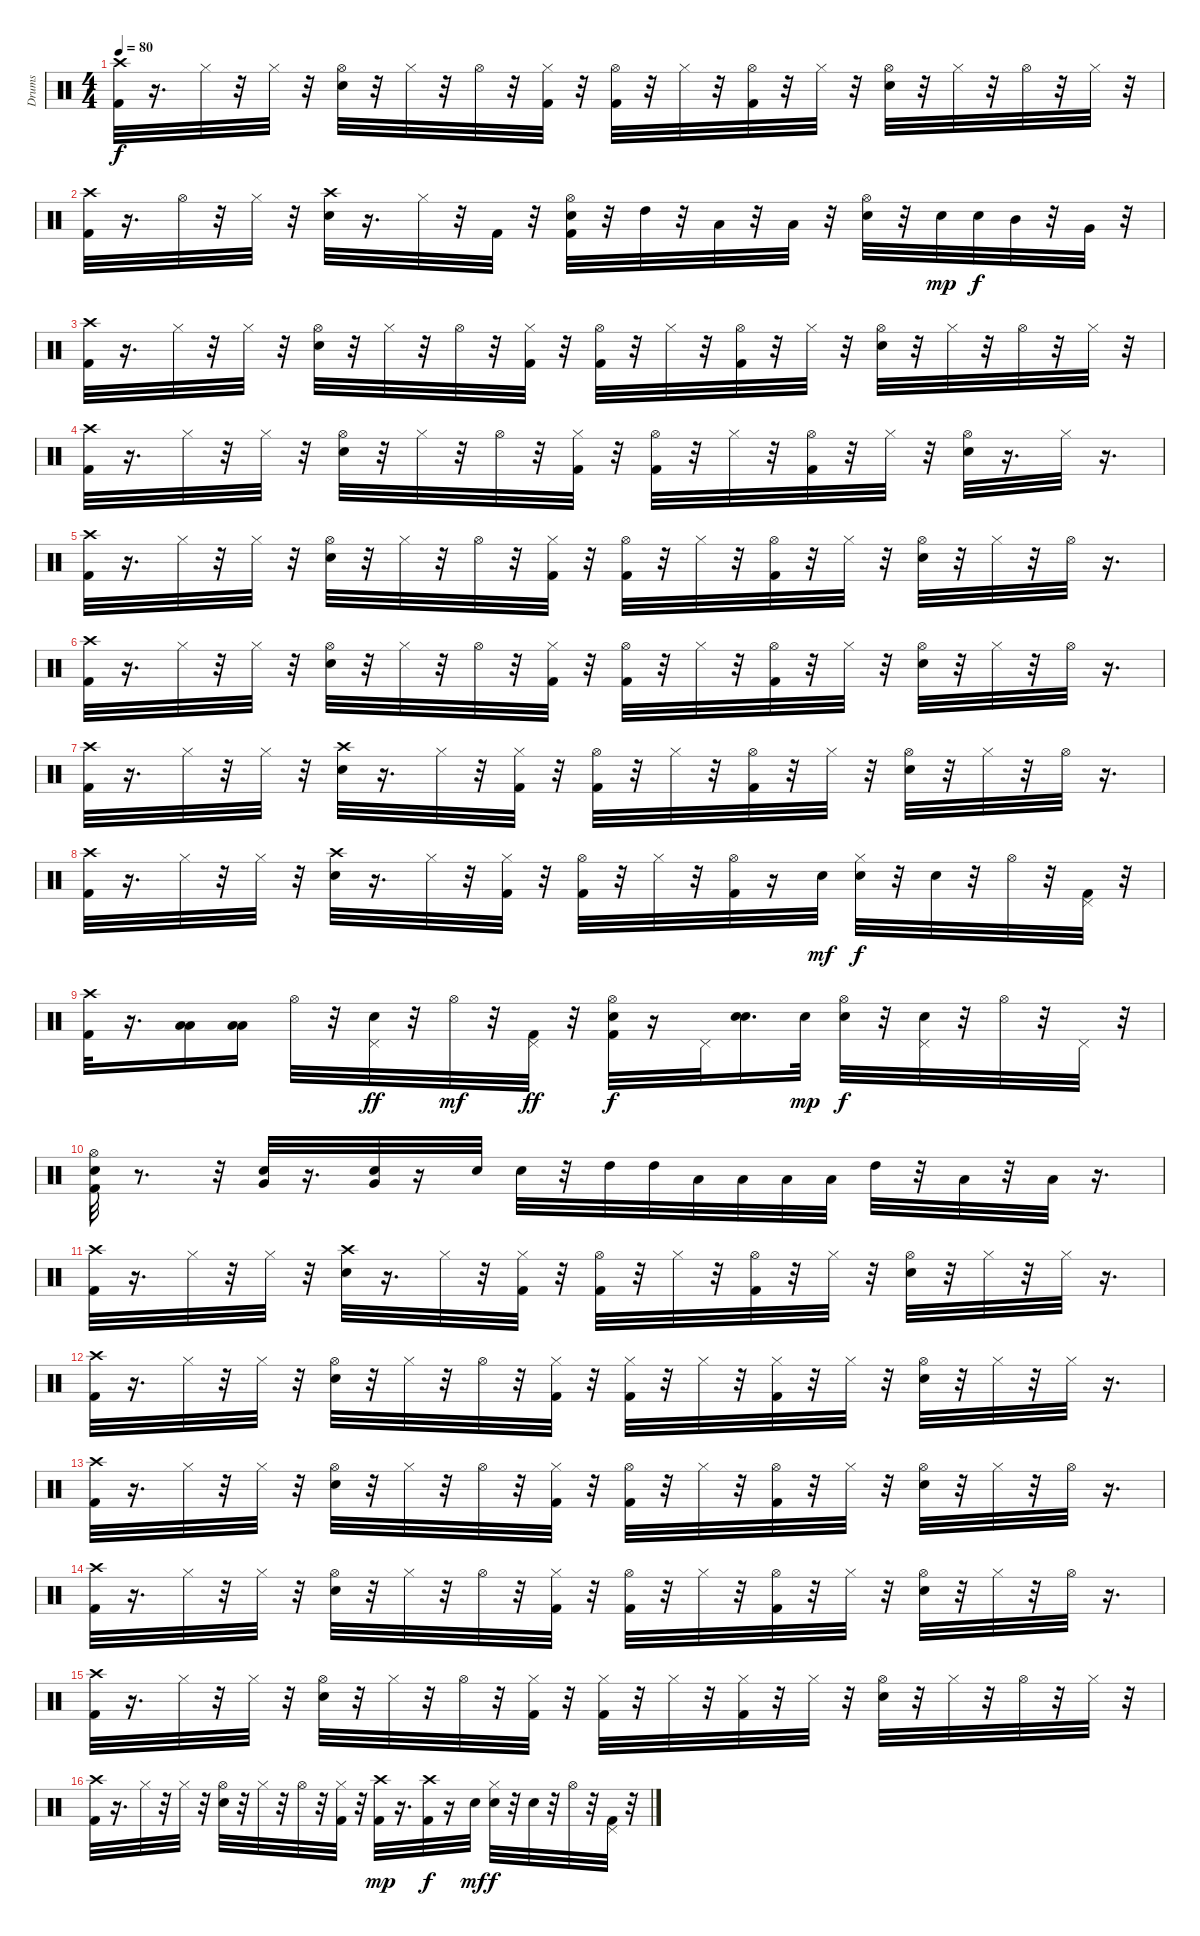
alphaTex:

\track ("Drums" "Drums") {instrument percussion}
\staff {score}
\articulation defaults
\ts (4 4)
\tempo 80
\clef neutral
\ks c
("Kick (hit) 2" "Crash high (hit)").32{dy f} r.16{d} "Hi-Hat (closed)".32 r.32 "Hi-Hat (closed)".32 r.32 ("Snare (hit) 2" "Hi-Hat (open)").32 r.32 "Hi-Hat (closed)".32 r.32 "Hi-Hat (open)".32 r.32 ("Kick (hit) 2" "Hi-Hat (closed)").32 r.32 ("Kick (hit) 2" "Hi-Hat (open)").32 r.32 "Hi-Hat (closed)".32 r.32 ("Hi-Hat (open)" "Kick (hit) 2").32 r.32 "Hi-Hat (closed)".32 r.32 ("Snare (hit) 2" "Hi-Hat (open)").32 r.32 "Hi-Hat (closed)".32 r.32 "Hi-Hat (open)".32 r.32 "Hi-Hat (closed)".32 r.32 |
("Kick (hit) 2" "Crash high (hit)").32 r.16{d} "Hi-Hat (open)".32 r.32 "Hi-Hat (closed)".32 r.32 ("Crash high (hit)" "Snare (hit) 2").32 r.16{d} "Hi-Hat (closed)".32 r.32 "Kick (hit) 2".32 r.32 ("Snare (hit) 2" "Hi-Hat (open)" "Kick (hit) 2").32 r.32 "High Tom (hit)".32 r.32 "Low Tom (hit)".32 r.32 "Low Floor Tom (hit)".32 r.32 ("Snare (hit) 2" "Hi-Hat (open)").32 r.32 "Snare (hit) 2".32{dy mp} "Snare (hit) 2".32{dy f} "Mid Tom (hit)".32 r.32 "Very Low Tom (hit)".32 r.32 |
("Kick (hit) 2" "Crash high (hit)").32 r.16{d} "Hi-Hat (closed)".32 r.32 "Hi-Hat (closed)".32 r.32 ("Snare (hit) 2" "Hi-Hat (open)").32 r.32 "Hi-Hat (closed)".32 r.32 "Hi-Hat (open)".32 r.32 ("Kick (hit) 2" "Hi-Hat (closed)").32 r.32 ("Kick (hit) 2" "Hi-Hat (open)").32 r.32 "Hi-Hat (closed)".32 r.32 ("Hi-Hat (open)" "Kick (hit) 2").32 r.32 "Hi-Hat (closed)".32 r.32 ("Snare (hit) 2" "Hi-Hat (open)").32 r.32 "Hi-Hat (closed)".32 r.32 "Hi-Hat (open)".32 r.32 "Hi-Hat (closed)".32 r.32 |
("Kick (hit) 2" "Crash high (hit)").32 r.16{d} "Hi-Hat (closed)".32 r.32 "Hi-Hat (closed)".32 r.32 ("Snare (hit) 2" "Hi-Hat (open)").32 r.32 "Hi-Hat (closed)".32 r.32 "Hi-Hat (open)".32 r.32 ("Kick (hit) 2" "Hi-Hat (closed)").32 r.32 ("Kick (hit) 2" "Hi-Hat (open)").32 r.32 "Hi-Hat (closed)".32 r.32 ("Hi-Hat (open)" "Kick (hit) 2").32 r.32 "Hi-Hat (closed)".32 r.32 ("Snare (hit) 2" "Hi-Hat (open)").32 r.16{d} "Hi-Hat (closed)".32 r.16{d} |
("Kick (hit) 2" "Crash high (hit)").32 r.16{d} "Hi-Hat (closed)".32 r.32 "Hi-Hat (closed)".32 r.32 ("Snare (hit) 2" "Hi-Hat (open)").32 r.32 "Hi-Hat (closed)".32 r.32 "Hi-Hat (open)".32 r.32 ("Kick (hit) 2" "Hi-Hat (closed)").32 r.32 ("Kick (hit) 2" "Hi-Hat (open)").32 r.32 "Hi-Hat (closed)".32 r.32 ("Hi-Hat (open)" "Kick (hit) 2").32 r.32 "Hi-Hat (closed)".32 r.32 ("Snare (hit) 2" "Hi-Hat (open)").32 r.32 "Hi-Hat (closed)".32 r.32 "Hi-Hat (open)".32 r.16{d} |
("Kick (hit) 2" "Crash high (hit)").32 r.16{d} "Hi-Hat (closed)".32 r.32 "Hi-Hat (closed)".32 r.32 ("Snare (hit) 2" "Hi-Hat (open)").32 r.32 "Hi-Hat (closed)".32 r.32 "Hi-Hat (open)".32 r.32 ("Kick (hit) 2" "Hi-Hat (closed)").32 r.32 ("Kick (hit) 2" "Hi-Hat (open)").32 r.32 "Hi-Hat (closed)".32 r.32 ("Hi-Hat (open)" "Kick (hit) 2").32 r.32 "Hi-Hat (closed)".32 r.32 ("Snare (hit) 2" "Hi-Hat (open)").32 r.32 "Hi-Hat (closed)".32 r.32 "Hi-Hat (open)".32 r.16{d} |
("Kick (hit) 2" "Crash high (hit)").32 r.16{d} "Hi-Hat (closed)".32 r.32 "Hi-Hat (closed)".32 r.32 ("Snare (hit) 2" "Crash high (hit)").32 r.16{d} "Hi-Hat (closed)".32 r.32 ("Kick (hit) 2" "Hi-Hat (closed)").32 r.32 ("Kick (hit) 2" "Hi-Hat (open)").32 r.32 "Hi-Hat (closed)".32 r.32 ("Hi-Hat (open)" "Kick (hit) 2").32 r.32 "Hi-Hat (closed)".32 r.32 ("Snare (hit) 2" "Hi-Hat (open)").32 r.32 "Hi-Hat (closed)".32 r.32 "Hi-Hat (open)".32 r.16{d} |
("Kick (hit) 2" "Crash high (hit)").32 r.16{d} "Hi-Hat (closed)".32 r.32 "Hi-Hat (closed)".32 r.32 ("Snare (hit) 2" "Crash high (hit)").32 r.16{d} "Hi-Hat (closed)".32 r.32 ("Kick (hit) 2" "Hi-Hat (closed)").32 r.32 ("Kick (hit) 2" "Hi-Hat (open)").32 r.32 "Hi-Hat (closed)".32 r.32 ("Hi-Hat (open)" "Kick (hit) 2").32 r.16 "Snare (hit) 2".32{dy mf} ("Snare (hit) 2" "Hi-Hat (closed)").32{dy f} r.32 "Snare (hit) 2".32 r.32 "Hi-Hat (open)".32 r.32 ("Pedal Hi-Hat (hit)" "Kick (hit) 2").32 r.32 |
("Crash high (hit)" "Kick (hit) 2").32 r.16{d} ("Low Tom (hit)" "Low Tom (hit)").16 ("Low Floor Tom (hit)" "Low Floor Tom (hit)").16 "Hi-Hat (open)".32 r.32 ("Snare (hit) 2" "Pedal Hi-Hat (hit)").32{dy ff} r.32 "Hi-Hat (open)".32{dy mf} r.32 ("Pedal Hi-Hat (hit)" "Kick (hit) 2").32{dy ff} r.32 ("Kick (hit) 2" "Snare (hit) 2" "Hi-Hat (open)").32{dy f} r.16 "Pedal Hi-Hat (hit)".32 ("Snare (hit) 2" "Snare (hit) 2").16{d} "Snare (hit) 2".32{dy mp} ("Hi-Hat (open)" "Snare (hit) 2").32{dy f} r.32 ("Pedal Hi-Hat (hit)" "Snare (hit) 2").32 r.32 "Hi-Hat (open)".32 r.32 "Pedal Hi-Hat (hit)".32 r.32 |
("Kick (hit) 2" "Hi-Hat (open)" "Snare (hit) 2").32 r.8{d} r.32 ("Very Low Tom (hit)" "Snare (hit) 2").32 r.16{d} ("Snare (hit) 2" "Very Low Tom (hit)").32 r.16 "Snare (hit) 2".32 "Snare (hit) 2".32 r.32 "High Tom (hit)".32 "High Tom (hit)".32 "Low Tom (hit)".32 "Low Tom (hit)".32 "Low Floor Tom (hit)".32 "Low Floor Tom (hit)".32 "High Tom (hit)".32 r.32 "Low Tom (hit)".32 r.32 "Low Floor Tom (hit)".32 r.16{d} |
("Kick (hit) 2" "Crash high (hit)").32 r.16{d} "Hi-Hat (closed)".32 r.32 "Hi-Hat (closed)".32 r.32 ("Snare (hit) 2" "Crash high (hit)").32 r.16{d} "Hi-Hat (closed)".32 r.32 ("Kick (hit) 2" "Hi-Hat (closed)").32 r.32 ("Kick (hit) 2" "Hi-Hat (open)").32 r.32 "Hi-Hat (closed)".32 r.32 ("Hi-Hat (open)" "Kick (hit) 2").32 r.32 "Hi-Hat (closed)".32 r.32 ("Snare (hit) 2" "Hi-Hat (open)").32 r.32 "Hi-Hat (closed)".32 r.32 "Hi-Hat (closed)".32 r.16{d} |
("Kick (hit) 2" "Crash high (hit)").32 r.16{d} "Hi-Hat (closed)".32 r.32 "Hi-Hat (closed)".32 r.32 ("Snare (hit) 2" "Hi-Hat (open)").32 r.32 "Hi-Hat (closed)".32 r.32 "Hi-Hat (open)".32 r.32 ("Kick (hit) 2" "Hi-Hat (closed)").32 r.32 ("Kick (hit) 2" "Hi-Hat (closed)").32 r.32 "Hi-Hat (closed)".32 r.32 ("Hi-Hat (closed)" "Kick (hit) 2").32 r.32 "Hi-Hat (closed)".32 r.32 ("Snare (hit) 2" "Hi-Hat (open)").32 r.32 "Hi-Hat (closed)".32 r.32 "Hi-Hat (closed)".32 r.16{d} |
("Kick (hit) 2" "Crash high (hit)").32 r.16{d} "Hi-Hat (closed)".32 r.32 "Hi-Hat (closed)".32 r.32 ("Snare (hit) 2" "Hi-Hat (open)").32 r.32 "Hi-Hat (closed)".32 r.32 "Hi-Hat (open)".32 r.32 ("Kick (hit) 2" "Hi-Hat (closed)").32 r.32 ("Kick (hit) 2" "Hi-Hat (open)").32 r.32 "Hi-Hat (closed)".32 r.32 ("Hi-Hat (open)" "Kick (hit) 2").32 r.32 "Hi-Hat (closed)".32 r.32 ("Snare (hit) 2" "Hi-Hat (open)").32 r.32 "Hi-Hat (closed)".32 r.32 "Hi-Hat (open)".32 r.16{d} |
("Kick (hit) 2" "Crash high (hit)").32 r.16{d} "Hi-Hat (closed)".32 r.32 "Hi-Hat (closed)".32 r.32 ("Snare (hit) 2" "Hi-Hat (open)").32 r.32 "Hi-Hat (closed)".32 r.32 "Hi-Hat (open)".32 r.32 ("Kick (hit) 2" "Hi-Hat (closed)").32 r.32 ("Kick (hit) 2" "Hi-Hat (open)").32 r.32 "Hi-Hat (closed)".32 r.32 ("Hi-Hat (open)" "Kick (hit) 2").32 r.32 "Hi-Hat (closed)".32 r.32 ("Snare (hit) 2" "Hi-Hat (open)").32 r.32 "Hi-Hat (closed)".32 r.32 "Hi-Hat (open)".32 r.16{d} |
("Kick (hit) 2" "Crash high (hit)").32 r.16{d} "Hi-Hat (closed)".32 r.32 "Hi-Hat (closed)".32 r.32 ("Snare (hit) 2" "Hi-Hat (open)").32 r.32 "Hi-Hat (closed)".32 r.32 "Hi-Hat (open)".32 r.32 ("Kick (hit) 2" "Hi-Hat (closed)").32 r.32 ("Kick (hit) 2" "Hi-Hat (closed)").32 r.32 "Hi-Hat (closed)".32 r.32 ("Hi-Hat (closed)" "Kick (hit) 2").32 r.32 "Hi-Hat (closed)".32 r.32 ("Snare (hit) 2" "Hi-Hat (open)").32 r.32 "Hi-Hat (closed)".32 r.32 "Hi-Hat (open)".32 r.32 "Hi-Hat (closed)".32 r.32 |
("Kick (hit) 2" "Crash high (hit)").32 r.16{d} "Hi-Hat (closed)".32 r.32 "Hi-Hat (closed)".32 r.32 ("Snare (hit) 2" "Hi-Hat (open)").32 r.32 "Hi-Hat (closed)".32 r.32 "Hi-Hat (open)".32 r.32 ("Kick (hit) 2" "Hi-Hat (closed)").32 r.32 ("Kick (hit) 2" "Crash high (hit)").32{dy mp} r.16{d} ("Crash high (hit)" "Kick (hit) 2").32{dy f} r.16 "Snare (hit) 2".32{dy mf} ("Snare (hit) 2" "Hi-Hat (closed)").32{dy f} r.32 "Snare (hit) 2".32 r.32 "Hi-Hat (open)".32 r.32 ("Pedal Hi-Hat (hit)" "Kick (hit) 2").32 r.32
